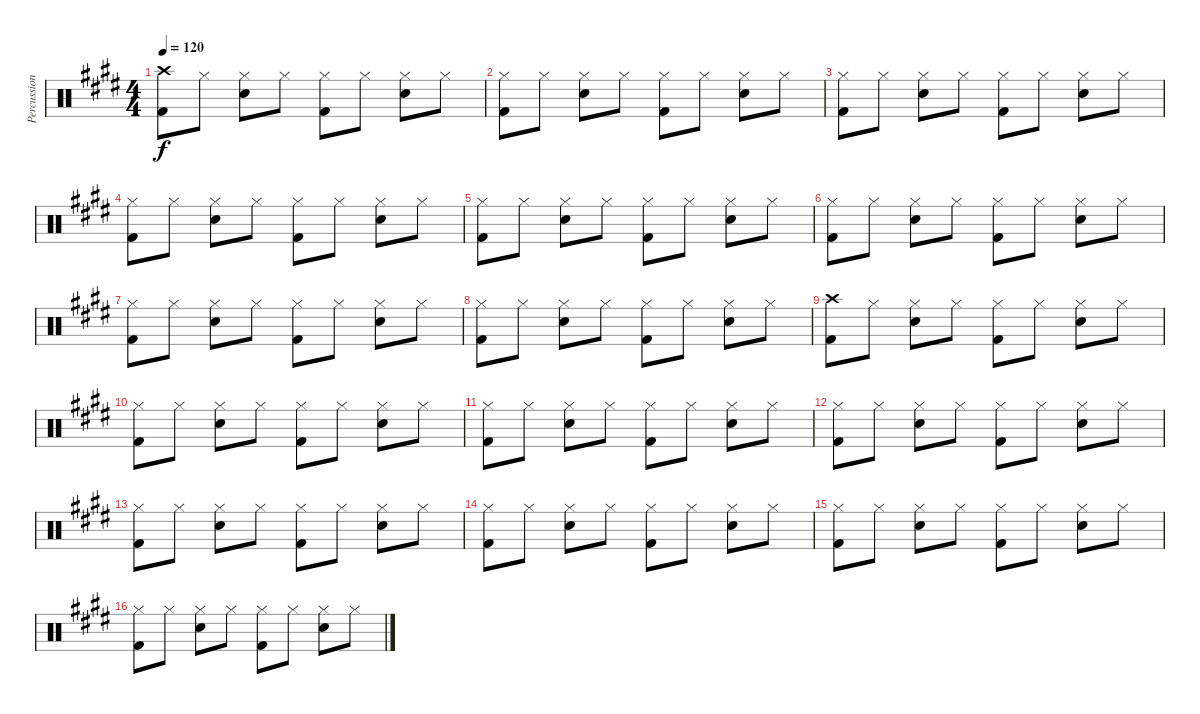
\track ("Percussion" "Percussion") {instrument percussion}
\staff {score}
\articulation defaults
\ts (4 4)
\tempo 120
\clef neutral
\ks e
("Crash high (hit)" "Kick (hit) 2").8{dy f} "Hi-Hat (closed)".8 ("Hi-Hat (closed)" "Snare (hit) 2").8 "Hi-Hat (closed)".8 ("Hi-Hat (closed)" "Kick (hit) 2").8 "Hi-Hat (closed)".8 ("Hi-Hat (closed)" "Snare (hit) 2").8 "Hi-Hat (closed)".8 |
("Hi-Hat (closed)" "Kick (hit) 2").8 "Hi-Hat (closed)".8 ("Hi-Hat (closed)" "Snare (hit) 2").8 "Hi-Hat (closed)".8 ("Hi-Hat (closed)" "Kick (hit) 2").8 "Hi-Hat (closed)".8 ("Hi-Hat (closed)" "Snare (hit) 2").8 "Hi-Hat (closed)".8 |
("Hi-Hat (closed)" "Kick (hit) 2").8 "Hi-Hat (closed)".8 ("Hi-Hat (closed)" "Snare (hit) 2").8 "Hi-Hat (closed)".8 ("Hi-Hat (closed)" "Kick (hit) 2").8 "Hi-Hat (closed)".8 ("Hi-Hat (closed)" "Snare (hit) 2").8 "Hi-Hat (closed)".8 |
("Hi-Hat (closed)" "Kick (hit) 2").8 "Hi-Hat (closed)".8 ("Hi-Hat (closed)" "Snare (hit) 2").8 "Hi-Hat (closed)".8 ("Hi-Hat (closed)" "Kick (hit) 2").8 "Hi-Hat (closed)".8 ("Hi-Hat (closed)" "Snare (hit) 2").8 "Hi-Hat (closed)".8 |
("Hi-Hat (closed)" "Kick (hit) 2").8 "Hi-Hat (closed)".8 ("Hi-Hat (closed)" "Snare (hit) 2").8 "Hi-Hat (closed)".8 ("Hi-Hat (closed)" "Kick (hit) 2").8 "Hi-Hat (closed)".8 ("Hi-Hat (closed)" "Snare (hit) 2").8 "Hi-Hat (closed)".8 |
("Hi-Hat (closed)" "Kick (hit) 2").8 "Hi-Hat (closed)".8 ("Hi-Hat (closed)" "Snare (hit) 2").8 "Hi-Hat (closed)".8 ("Hi-Hat (closed)" "Kick (hit) 2").8 "Hi-Hat (closed)".8 ("Hi-Hat (closed)" "Snare (hit) 2").8 "Hi-Hat (closed)".8 |
("Hi-Hat (closed)" "Kick (hit) 2").8 "Hi-Hat (closed)".8 ("Hi-Hat (closed)" "Snare (hit) 2").8 "Hi-Hat (closed)".8 ("Hi-Hat (closed)" "Kick (hit) 2").8 "Hi-Hat (closed)".8 ("Hi-Hat (closed)" "Snare (hit) 2").8 "Hi-Hat (closed)".8 |
("Hi-Hat (closed)" "Kick (hit) 2").8 "Hi-Hat (closed)".8 ("Hi-Hat (closed)" "Snare (hit) 2").8 "Hi-Hat (closed)".8 ("Hi-Hat (closed)" "Kick (hit) 2").8 "Hi-Hat (closed)".8 ("Hi-Hat (closed)" "Snare (hit) 2").8 "Hi-Hat (closed)".8 |
("Crash high (hit)" "Kick (hit) 2").8 "Hi-Hat (closed)".8 ("Hi-Hat (closed)" "Snare (hit) 2").8 "Hi-Hat (closed)".8 ("Hi-Hat (closed)" "Kick (hit) 2").8 "Hi-Hat (closed)".8 ("Hi-Hat (closed)" "Snare (hit) 2").8 "Hi-Hat (closed)".8 |
("Hi-Hat (closed)" "Kick (hit) 2").8 "Hi-Hat (closed)".8 ("Hi-Hat (closed)" "Snare (hit) 2").8 "Hi-Hat (closed)".8 ("Hi-Hat (closed)" "Kick (hit) 2").8 "Hi-Hat (closed)".8 ("Hi-Hat (closed)" "Snare (hit) 2").8 "Hi-Hat (closed)".8 |
("Hi-Hat (closed)" "Kick (hit) 2").8 "Hi-Hat (closed)".8 ("Hi-Hat (closed)" "Snare (hit) 2").8 "Hi-Hat (closed)".8 ("Hi-Hat (closed)" "Kick (hit) 2").8 "Hi-Hat (closed)".8 ("Hi-Hat (closed)" "Snare (hit) 2").8 "Hi-Hat (closed)".8 |
("Hi-Hat (closed)" "Kick (hit) 2").8 "Hi-Hat (closed)".8 ("Hi-Hat (closed)" "Snare (hit) 2").8 "Hi-Hat (closed)".8 ("Hi-Hat (closed)" "Kick (hit) 2").8 "Hi-Hat (closed)".8 ("Hi-Hat (closed)" "Snare (hit) 2").8 "Hi-Hat (closed)".8 |
("Hi-Hat (closed)" "Kick (hit) 2").8 "Hi-Hat (closed)".8 ("Hi-Hat (closed)" "Snare (hit) 2").8 "Hi-Hat (closed)".8 ("Hi-Hat (closed)" "Kick (hit) 2").8 "Hi-Hat (closed)".8 ("Hi-Hat (closed)" "Snare (hit) 2").8 "Hi-Hat (closed)".8 |
("Hi-Hat (closed)" "Kick (hit) 2").8 "Hi-Hat (closed)".8 ("Hi-Hat (closed)" "Snare (hit) 2").8 "Hi-Hat (closed)".8 ("Hi-Hat (closed)" "Kick (hit) 2").8 "Hi-Hat (closed)".8 ("Hi-Hat (closed)" "Snare (hit) 2").8 "Hi-Hat (closed)".8 |
("Hi-Hat (closed)" "Kick (hit) 2").8 "Hi-Hat (closed)".8 ("Hi-Hat (closed)" "Snare (hit) 2").8 "Hi-Hat (closed)".8 ("Hi-Hat (closed)" "Kick (hit) 2").8 "Hi-Hat (closed)".8 ("Hi-Hat (closed)" "Snare (hit) 2").8 "Hi-Hat (closed)".8 |
("Hi-Hat (closed)" "Kick (hit) 2").8 "Hi-Hat (closed)".8 ("Hi-Hat (closed)" "Snare (hit) 2").8 "Hi-Hat (closed)".8 ("Hi-Hat (closed)" "Kick (hit) 2").8 "Hi-Hat (closed)".8 ("Hi-Hat (closed)" "Snare (hit) 2").8 "Hi-Hat (closed)".8
